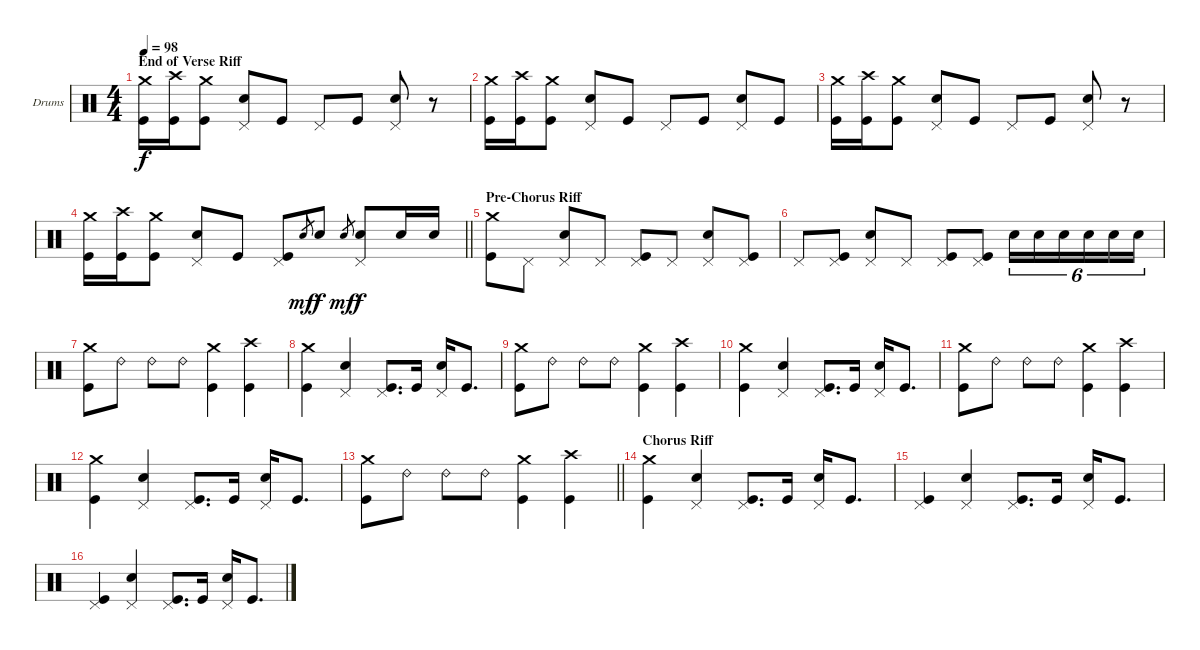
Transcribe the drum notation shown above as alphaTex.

\bracketExtendMode groupsimilarinstruments
\firstSystemTrackNameOrientation horizontal
\otherSystemsTrackNameOrientation horizontal
\track ("Drumkit" "Drums") {instrument percussion}
\staff {score}
\articulation defaults
\ts (4 4)
\section ("" "End of Verse Riff")
\tempo 98
\clef neutral
\ks c
("Crash medium (hit)" "Kick (hit)").16{dy f} ("Crash high (hit)" "Kick (hit)").16 ("Crash medium (hit)" "Kick (hit)").8 ("Pedal Hi-Hat (hit)" "Snare (hit) 2").8 "Kick (hit)".8 "Pedal Hi-Hat (hit)".8 "Kick (hit)".8 ("Pedal Hi-Hat (hit)" "Snare (hit) 2").8 r.8 |
("Crash medium (hit)" "Kick (hit)").16 ("Crash high (hit)" "Kick (hit)").16 ("Crash medium (hit)" "Kick (hit)").8 ("Pedal Hi-Hat (hit)" "Snare (hit) 2").8 "Kick (hit)".8 "Pedal Hi-Hat (hit)".8 "Kick (hit)".8 ("Pedal Hi-Hat (hit)" "Snare (hit) 2").8 "Kick (hit)".8 |
("Crash medium (hit)" "Kick (hit)").16 ("Crash high (hit)" "Kick (hit)").16 ("Crash medium (hit)" "Kick (hit)").8 ("Pedal Hi-Hat (hit)" "Snare (hit) 2").8 "Kick (hit)".8 "Pedal Hi-Hat (hit)".8 "Kick (hit)".8 ("Pedal Hi-Hat (hit)" "Snare (hit) 2").8 r.8 |
\barLineRight lightlight
("Crash medium (hit)" "Kick (hit)").16 ("Crash high (hit)" "Kick (hit)").16 ("Crash medium (hit)" "Kick (hit)").8 ("Pedal Hi-Hat (hit)" "Snare (hit) 2").8 "Kick (hit)".8 ("Pedal Hi-Hat (hit)" "Kick (hit)").8 "Snare (hit) 2".8{gr dy mf} "Snare (hit) 2".8{dy f} "Snare (hit) 2".8{gr dy mf} ("Pedal Hi-Hat (hit)" "Snare (hit) 2").8{dy f} "Snare (hit) 2".16 "Snare (hit) 2".16 |
\section ("" "Pre-Chorus Riff")
("Crash medium (hit)" "Kick (hit)").8 "Pedal Hi-Hat (hit)".8 ("Pedal Hi-Hat (hit)" "Snare (hit) 2").8 "Pedal Hi-Hat (hit)".8 ("Pedal Hi-Hat (hit)" "Kick (hit)").8 "Pedal Hi-Hat (hit)".8 ("Pedal Hi-Hat (hit)" "Snare (hit) 2").8 ("Pedal Hi-Hat (hit)" "Kick (hit)").8 |
"Pedal Hi-Hat (hit)".8 ("Pedal Hi-Hat (hit)" "Kick (hit)").8 ("Pedal Hi-Hat (hit)" "Snare (hit) 2").8 "Pedal Hi-Hat (hit)".8 ("Pedal Hi-Hat (hit)" "Kick (hit)").8 ("Pedal Hi-Hat (hit)" "Kick (hit)").8 "Snare (hit) 2".16{tu (6 4)} "Snare (hit) 2".16{tu (6 4)} "Snare (hit) 2".16{tu (6 4)} "Snare (hit) 2".16{tu (6 4)} "Snare (hit) 2".16{tu (6 4)} "Snare (hit) 2".16{tu (6 4)} |
("Crash medium (hit)" "Kick (hit)").8 "Ride (bell) 2".8 "Ride (bell) 2".8 "Ride (bell) 2".8 ("Crash medium (hit)" "Kick (hit)").4 ("Crash high (hit)" "Kick (hit)").4 |
("Crash medium (hit)" "Kick (hit)").4 ("Pedal Hi-Hat (hit)" "Snare (hit) 2").4 ("Pedal Hi-Hat (hit)" "Kick (hit)").8{d} "Kick (hit)".16 ("Pedal Hi-Hat (hit)" "Snare (hit) 2").16 "Kick (hit)".8{d} |
("Crash medium (hit)" "Kick (hit)").8 "Ride (bell) 2".8 "Ride (bell) 2".8 "Ride (bell) 2".8 ("Crash medium (hit)" "Kick (hit)").4 ("Crash high (hit)" "Kick (hit)").4 |
("Crash medium (hit)" "Kick (hit)").4 ("Pedal Hi-Hat (hit)" "Snare (hit) 2").4 ("Pedal Hi-Hat (hit)" "Kick (hit)").8{d} "Kick (hit)".16 ("Pedal Hi-Hat (hit)" "Snare (hit) 2").16 "Kick (hit)".8{d} |
("Crash medium (hit)" "Kick (hit)").8 "Ride (bell) 2".8 "Ride (bell) 2".8 "Ride (bell) 2".8 ("Crash medium (hit)" "Kick (hit)").4 ("Crash high (hit)" "Kick (hit)").4 |
("Crash medium (hit)" "Kick (hit)").4 ("Pedal Hi-Hat (hit)" "Snare (hit) 2").4 ("Pedal Hi-Hat (hit)" "Kick (hit)").8{d} "Kick (hit)".16 ("Pedal Hi-Hat (hit)" "Snare (hit) 2").16 "Kick (hit)".8{d} |
\barLineRight lightlight
("Crash medium (hit)" "Kick (hit)").8 "Ride (bell) 2".8 "Ride (bell) 2".8 "Ride (bell) 2".8 ("Crash medium (hit)" "Kick (hit)").4 ("Crash high (hit)" "Kick (hit)").4 |
\section ("" "Chorus Riff")
("Crash medium (hit)" "Kick (hit)").4 ("Pedal Hi-Hat (hit)" "Snare (hit) 2").4 ("Pedal Hi-Hat (hit)" "Kick (hit)").8{d} "Kick (hit)".16 ("Pedal Hi-Hat (hit)" "Snare (hit) 2").16 "Kick (hit)".8{d} |
("Pedal Hi-Hat (hit)" "Kick (hit)").4 ("Pedal Hi-Hat (hit)" "Snare (hit) 2").4 ("Pedal Hi-Hat (hit)" "Kick (hit)").8{d} "Kick (hit)".16 ("Pedal Hi-Hat (hit)" "Snare (hit) 2").16 "Kick (hit)".8{d} |
("Pedal Hi-Hat (hit)" "Kick (hit)").4 ("Pedal Hi-Hat (hit)" "Snare (hit) 2").4 ("Pedal Hi-Hat (hit)" "Kick (hit)").8{d} "Kick (hit)".16 ("Pedal Hi-Hat (hit)" "Snare (hit) 2").16 "Kick (hit)".8{d}
